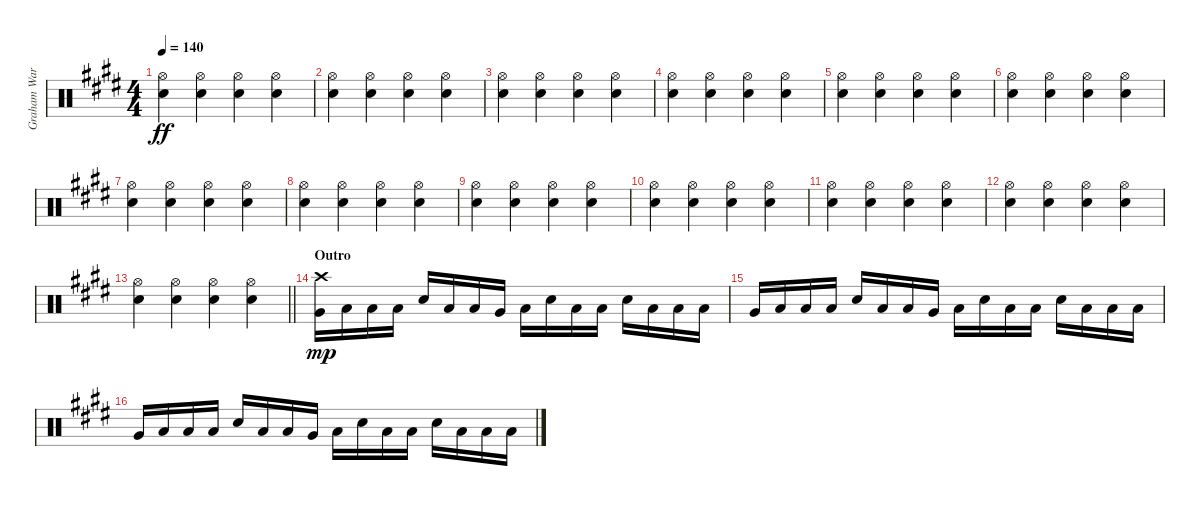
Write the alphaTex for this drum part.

\track ("Graham Ward (Drums)" "Graham War") {instrument percussion}
\staff {score}
\articulation defaults
\ts (4 4)
\tempo 140
\clef neutral
\ks e
("Snare (hit) 2" "Hi-Hat (open)").4{dy ff} ("Snare (hit) 2" "Hi-Hat (open)").4 ("Snare (hit) 2" "Hi-Hat (open)").4 ("Snare (hit) 2" "Hi-Hat (open)").4 |
("Snare (hit) 2" "Hi-Hat (open)").4 ("Snare (hit) 2" "Hi-Hat (open)").4 ("Snare (hit) 2" "Hi-Hat (open)").4 ("Snare (hit) 2" "Hi-Hat (open)").4 |
("Snare (hit) 2" "Hi-Hat (open)").4 ("Snare (hit) 2" "Hi-Hat (open)").4 ("Snare (hit) 2" "Hi-Hat (open)").4 ("Snare (hit) 2" "Hi-Hat (open)").4 |
("Snare (hit) 2" "Hi-Hat (open)").4 ("Snare (hit) 2" "Hi-Hat (open)").4 ("Snare (hit) 2" "Hi-Hat (open)").4 ("Snare (hit) 2" "Hi-Hat (open)").4 |
("Snare (hit) 2" "Hi-Hat (open)").4 ("Snare (hit) 2" "Hi-Hat (open)").4 ("Snare (hit) 2" "Hi-Hat (open)").4 ("Snare (hit) 2" "Hi-Hat (open)").4 |
("Snare (hit) 2" "Hi-Hat (open)").4 ("Snare (hit) 2" "Hi-Hat (open)").4 ("Snare (hit) 2" "Hi-Hat (open)").4 ("Snare (hit) 2" "Hi-Hat (open)").4 |
("Snare (hit) 2" "Hi-Hat (open)").4 ("Snare (hit) 2" "Hi-Hat (open)").4 ("Snare (hit) 2" "Hi-Hat (open)").4 ("Snare (hit) 2" "Hi-Hat (open)").4 |
("Snare (hit) 2" "Hi-Hat (open)").4 ("Snare (hit) 2" "Hi-Hat (open)").4 ("Snare (hit) 2" "Hi-Hat (open)").4 ("Snare (hit) 2" "Hi-Hat (open)").4 |
("Snare (hit) 2" "Hi-Hat (open)").4 ("Snare (hit) 2" "Hi-Hat (open)").4 ("Snare (hit) 2" "Hi-Hat (open)").4 ("Snare (hit) 2" "Hi-Hat (open)").4 |
("Snare (hit) 2" "Hi-Hat (open)").4 ("Snare (hit) 2" "Hi-Hat (open)").4 ("Snare (hit) 2" "Hi-Hat (open)").4 ("Snare (hit) 2" "Hi-Hat (open)").4 |
("Snare (hit) 2" "Hi-Hat (open)").4 ("Snare (hit) 2" "Hi-Hat (open)").4 ("Snare (hit) 2" "Hi-Hat (open)").4 ("Snare (hit) 2" "Hi-Hat (open)").4 |
("Snare (hit) 2" "Hi-Hat (open)").4 ("Snare (hit) 2" "Hi-Hat (open)").4 ("Snare (hit) 2" "Hi-Hat (open)").4 ("Snare (hit) 2" "Hi-Hat (open)").4 |
\barLineRight lightlight
("Snare (hit) 2" "Hi-Hat (open)").4 ("Snare (hit) 2" "Hi-Hat (open)").4 ("Snare (hit) 2" "Hi-Hat (open)").4 ("Snare (hit) 2" "Hi-Hat (open)").4 |
\section ("" "Outro")
("Crash high (hit)" "Very Low Tom (hit)").16{dy mp} "Low Floor Tom (hit)".16 "Low Floor Tom (hit)".16 "Low Floor Tom (hit)".16 "Snare (hit) 2".16 "Low Floor Tom (hit)".16 "Low Floor Tom (hit)".16 "Very Low Tom (hit)".16 "Low Floor Tom (hit)".16 "Snare (hit) 2".16 "Low Floor Tom (hit)".16 "Low Floor Tom (hit)".16 "Snare (hit) 2".16 "Low Floor Tom (hit)".16 "Low Floor Tom (hit)".16 "Low Floor Tom (hit)".16 |
"Very Low Tom (hit)".16 "Low Floor Tom (hit)".16 "Low Floor Tom (hit)".16 "Low Floor Tom (hit)".16 "Snare (hit) 2".16 "Low Floor Tom (hit)".16 "Low Floor Tom (hit)".16 "Very Low Tom (hit)".16 "Low Floor Tom (hit)".16 "Snare (hit) 2".16 "Low Floor Tom (hit)".16 "Low Floor Tom (hit)".16 "Snare (hit) 2".16 "Low Floor Tom (hit)".16 "Low Floor Tom (hit)".16 "Low Floor Tom (hit)".16 |
"Very Low Tom (hit)".16 "Low Floor Tom (hit)".16 "Low Floor Tom (hit)".16 "Low Floor Tom (hit)".16 "Snare (hit) 2".16 "Low Floor Tom (hit)".16 "Low Floor Tom (hit)".16 "Very Low Tom (hit)".16 "Low Floor Tom (hit)".16 "Snare (hit) 2".16 "Low Floor Tom (hit)".16 "Low Floor Tom (hit)".16 "Snare (hit) 2".16 "Low Floor Tom (hit)".16 "Low Floor Tom (hit)".16 "Low Floor Tom (hit)".16
